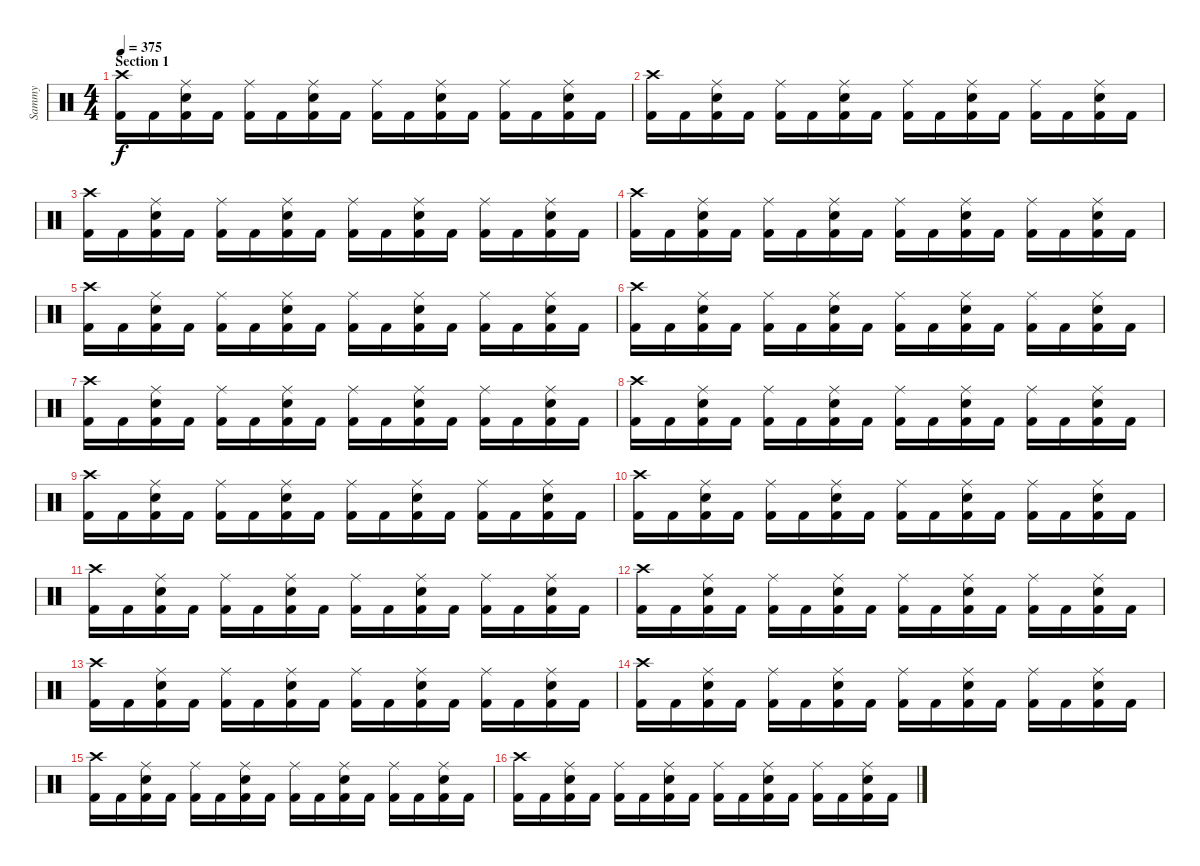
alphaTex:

\track ("Sammy" "Sammy") {instrument percussion}
\staff {score}
\articulation defaults
\ts (4 4)
\section ("" "Section 1")
\tempo 375
\clef neutral
\ks c
("Crash high (hit)" "Kick (hit) 2").16{dy f} "Kick (hit) 2".16 ("Ride (middle)" "Electric Snare (hit)" "Kick (hit) 2").16 "Kick (hit) 2".16 ("Ride (middle)" "Kick (hit) 2").16 "Kick (hit) 2".16 ("Ride (middle)" "Electric Snare (hit)" "Kick (hit) 2").16 "Kick (hit) 2".16 ("Ride (middle)" "Kick (hit) 2").16 "Kick (hit) 2".16 ("Ride (middle)" "Electric Snare (hit)" "Kick (hit) 2").16 "Kick (hit) 2".16 ("Ride (middle)" "Kick (hit) 2").16 "Kick (hit) 2".16 ("Ride (middle)" "Electric Snare (hit)" "Kick (hit) 2").16 "Kick (hit) 2".16 |
("Crash high (hit)" "Kick (hit) 2").16 "Kick (hit) 2".16 ("Ride (middle)" "Electric Snare (hit)" "Kick (hit) 2").16 "Kick (hit) 2".16 ("Ride (middle)" "Kick (hit) 2").16 "Kick (hit) 2".16 ("Ride (middle)" "Electric Snare (hit)" "Kick (hit) 2").16 "Kick (hit) 2".16 ("Ride (middle)" "Kick (hit) 2").16 "Kick (hit) 2".16 ("Ride (middle)" "Electric Snare (hit)" "Kick (hit) 2").16 "Kick (hit) 2".16 ("Ride (middle)" "Kick (hit) 2").16 "Kick (hit) 2".16 ("Ride (middle)" "Electric Snare (hit)" "Kick (hit) 2").16 "Kick (hit) 2".16 |
("Crash high (hit)" "Kick (hit) 2").16 "Kick (hit) 2".16 ("Ride (middle)" "Electric Snare (hit)" "Kick (hit) 2").16 "Kick (hit) 2".16 ("Ride (middle)" "Kick (hit) 2").16 "Kick (hit) 2".16 ("Ride (middle)" "Electric Snare (hit)" "Kick (hit) 2").16 "Kick (hit) 2".16 ("Ride (middle)" "Kick (hit) 2").16 "Kick (hit) 2".16 ("Ride (middle)" "Electric Snare (hit)" "Kick (hit) 2").16 "Kick (hit) 2".16 ("Ride (middle)" "Kick (hit) 2").16 "Kick (hit) 2".16 ("Ride (middle)" "Electric Snare (hit)" "Kick (hit) 2").16 "Kick (hit) 2".16 |
("Crash high (hit)" "Kick (hit) 2").16 "Kick (hit) 2".16 ("Ride (middle)" "Electric Snare (hit)" "Kick (hit) 2").16 "Kick (hit) 2".16 ("Ride (middle)" "Kick (hit) 2").16 "Kick (hit) 2".16 ("Ride (middle)" "Electric Snare (hit)" "Kick (hit) 2").16 "Kick (hit) 2".16 ("Ride (middle)" "Kick (hit) 2").16 "Kick (hit) 2".16 ("Ride (middle)" "Electric Snare (hit)" "Kick (hit) 2").16 "Kick (hit) 2".16 ("Ride (middle)" "Kick (hit) 2").16 "Kick (hit) 2".16 ("Ride (middle)" "Electric Snare (hit)" "Kick (hit) 2").16 "Kick (hit) 2".16 |
("Crash high (hit)" "Kick (hit) 2").16 "Kick (hit) 2".16 ("Ride (middle)" "Electric Snare (hit)" "Kick (hit) 2").16 "Kick (hit) 2".16 ("Ride (middle)" "Kick (hit) 2").16 "Kick (hit) 2".16 ("Ride (middle)" "Electric Snare (hit)" "Kick (hit) 2").16 "Kick (hit) 2".16 ("Ride (middle)" "Kick (hit) 2").16 "Kick (hit) 2".16 ("Ride (middle)" "Electric Snare (hit)" "Kick (hit) 2").16 "Kick (hit) 2".16 ("Ride (middle)" "Kick (hit) 2").16 "Kick (hit) 2".16 ("Ride (middle)" "Electric Snare (hit)" "Kick (hit) 2").16 "Kick (hit) 2".16 |
("Crash high (hit)" "Kick (hit) 2").16 "Kick (hit) 2".16 ("Ride (middle)" "Electric Snare (hit)" "Kick (hit) 2").16 "Kick (hit) 2".16 ("Ride (middle)" "Kick (hit) 2").16 "Kick (hit) 2".16 ("Ride (middle)" "Electric Snare (hit)" "Kick (hit) 2").16 "Kick (hit) 2".16 ("Ride (middle)" "Kick (hit) 2").16 "Kick (hit) 2".16 ("Ride (middle)" "Electric Snare (hit)" "Kick (hit) 2").16 "Kick (hit) 2".16 ("Ride (middle)" "Kick (hit) 2").16 "Kick (hit) 2".16 ("Ride (middle)" "Electric Snare (hit)" "Kick (hit) 2").16 "Kick (hit) 2".16 |
("Crash high (hit)" "Kick (hit) 2").16 "Kick (hit) 2".16 ("Ride (middle)" "Electric Snare (hit)" "Kick (hit) 2").16 "Kick (hit) 2".16 ("Ride (middle)" "Kick (hit) 2").16 "Kick (hit) 2".16 ("Ride (middle)" "Electric Snare (hit)" "Kick (hit) 2").16 "Kick (hit) 2".16 ("Ride (middle)" "Kick (hit) 2").16 "Kick (hit) 2".16 ("Ride (middle)" "Electric Snare (hit)" "Kick (hit) 2").16 "Kick (hit) 2".16 ("Ride (middle)" "Kick (hit) 2").16 "Kick (hit) 2".16 ("Ride (middle)" "Electric Snare (hit)" "Kick (hit) 2").16 "Kick (hit) 2".16 |
("Crash high (hit)" "Kick (hit) 2").16 "Kick (hit) 2".16 ("Ride (middle)" "Electric Snare (hit)" "Kick (hit) 2").16 "Kick (hit) 2".16 ("Ride (middle)" "Kick (hit) 2").16 "Kick (hit) 2".16 ("Ride (middle)" "Electric Snare (hit)" "Kick (hit) 2").16 "Kick (hit) 2".16 ("Ride (middle)" "Kick (hit) 2").16 "Kick (hit) 2".16 ("Ride (middle)" "Electric Snare (hit)" "Kick (hit) 2").16 "Kick (hit) 2".16 ("Ride (middle)" "Kick (hit) 2").16 "Kick (hit) 2".16 ("Ride (middle)" "Electric Snare (hit)" "Kick (hit) 2").16 "Kick (hit) 2".16 |
("Crash high (hit)" "Kick (hit) 2").16 "Kick (hit) 2".16 ("Ride (middle)" "Electric Snare (hit)" "Kick (hit) 2").16 "Kick (hit) 2".16 ("Ride (middle)" "Kick (hit) 2").16 "Kick (hit) 2".16 ("Ride (middle)" "Electric Snare (hit)" "Kick (hit) 2").16 "Kick (hit) 2".16 ("Ride (middle)" "Kick (hit) 2").16 "Kick (hit) 2".16 ("Ride (middle)" "Electric Snare (hit)" "Kick (hit) 2").16 "Kick (hit) 2".16 ("Ride (middle)" "Kick (hit) 2").16 "Kick (hit) 2".16 ("Ride (middle)" "Electric Snare (hit)" "Kick (hit) 2").16 "Kick (hit) 2".16 |
("Crash high (hit)" "Kick (hit) 2").16 "Kick (hit) 2".16 ("Ride (middle)" "Electric Snare (hit)" "Kick (hit) 2").16 "Kick (hit) 2".16 ("Ride (middle)" "Kick (hit) 2").16 "Kick (hit) 2".16 ("Ride (middle)" "Electric Snare (hit)" "Kick (hit) 2").16 "Kick (hit) 2".16 ("Ride (middle)" "Kick (hit) 2").16 "Kick (hit) 2".16 ("Ride (middle)" "Electric Snare (hit)" "Kick (hit) 2").16 "Kick (hit) 2".16 ("Ride (middle)" "Kick (hit) 2").16 "Kick (hit) 2".16 ("Ride (middle)" "Electric Snare (hit)" "Kick (hit) 2").16 "Kick (hit) 2".16 |
("Crash high (hit)" "Kick (hit) 2").16 "Kick (hit) 2".16 ("Ride (middle)" "Electric Snare (hit)" "Kick (hit) 2").16 "Kick (hit) 2".16 ("Ride (middle)" "Kick (hit) 2").16 "Kick (hit) 2".16 ("Ride (middle)" "Electric Snare (hit)" "Kick (hit) 2").16 "Kick (hit) 2".16 ("Ride (middle)" "Kick (hit) 2").16 "Kick (hit) 2".16 ("Ride (middle)" "Electric Snare (hit)" "Kick (hit) 2").16 "Kick (hit) 2".16 ("Ride (middle)" "Kick (hit) 2").16 "Kick (hit) 2".16 ("Ride (middle)" "Electric Snare (hit)" "Kick (hit) 2").16 "Kick (hit) 2".16 |
("Crash high (hit)" "Kick (hit) 2").16 "Kick (hit) 2".16 ("Ride (middle)" "Electric Snare (hit)" "Kick (hit) 2").16 "Kick (hit) 2".16 ("Ride (middle)" "Kick (hit) 2").16 "Kick (hit) 2".16 ("Ride (middle)" "Electric Snare (hit)" "Kick (hit) 2").16 "Kick (hit) 2".16 ("Ride (middle)" "Kick (hit) 2").16 "Kick (hit) 2".16 ("Ride (middle)" "Electric Snare (hit)" "Kick (hit) 2").16 "Kick (hit) 2".16 ("Ride (middle)" "Kick (hit) 2").16 "Kick (hit) 2".16 ("Ride (middle)" "Electric Snare (hit)" "Kick (hit) 2").16 "Kick (hit) 2".16 |
("Crash high (hit)" "Kick (hit) 2").16 "Kick (hit) 2".16 ("Ride (middle)" "Electric Snare (hit)" "Kick (hit) 2").16 "Kick (hit) 2".16 ("Ride (middle)" "Kick (hit) 2").16 "Kick (hit) 2".16 ("Ride (middle)" "Electric Snare (hit)" "Kick (hit) 2").16 "Kick (hit) 2".16 ("Ride (middle)" "Kick (hit) 2").16 "Kick (hit) 2".16 ("Ride (middle)" "Electric Snare (hit)" "Kick (hit) 2").16 "Kick (hit) 2".16 ("Ride (middle)" "Kick (hit) 2").16 "Kick (hit) 2".16 ("Ride (middle)" "Electric Snare (hit)" "Kick (hit) 2").16 "Kick (hit) 2".16 |
("Crash high (hit)" "Kick (hit) 2").16 "Kick (hit) 2".16 ("Ride (middle)" "Electric Snare (hit)" "Kick (hit) 2").16 "Kick (hit) 2".16 ("Ride (middle)" "Kick (hit) 2").16 "Kick (hit) 2".16 ("Ride (middle)" "Electric Snare (hit)" "Kick (hit) 2").16 "Kick (hit) 2".16 ("Ride (middle)" "Kick (hit) 2").16 "Kick (hit) 2".16 ("Ride (middle)" "Electric Snare (hit)" "Kick (hit) 2").16 "Kick (hit) 2".16 ("Ride (middle)" "Kick (hit) 2").16 "Kick (hit) 2".16 ("Ride (middle)" "Electric Snare (hit)" "Kick (hit) 2").16 "Kick (hit) 2".16 |
("Crash high (hit)" "Kick (hit) 2").16 "Kick (hit) 2".16 ("Ride (middle)" "Electric Snare (hit)" "Kick (hit) 2").16 "Kick (hit) 2".16 ("Ride (middle)" "Kick (hit) 2").16 "Kick (hit) 2".16 ("Ride (middle)" "Electric Snare (hit)" "Kick (hit) 2").16 "Kick (hit) 2".16 ("Ride (middle)" "Kick (hit) 2").16 "Kick (hit) 2".16 ("Ride (middle)" "Electric Snare (hit)" "Kick (hit) 2").16 "Kick (hit) 2".16 ("Ride (middle)" "Kick (hit) 2").16 "Kick (hit) 2".16 ("Ride (middle)" "Electric Snare (hit)" "Kick (hit) 2").16 "Kick (hit) 2".16 |
("Crash high (hit)" "Kick (hit) 2").16 "Kick (hit) 2".16 ("Ride (middle)" "Electric Snare (hit)" "Kick (hit) 2").16 "Kick (hit) 2".16 ("Ride (middle)" "Kick (hit) 2").16 "Kick (hit) 2".16 ("Ride (middle)" "Electric Snare (hit)" "Kick (hit) 2").16 "Kick (hit) 2".16 ("Ride (middle)" "Kick (hit) 2").16 "Kick (hit) 2".16 ("Ride (middle)" "Electric Snare (hit)" "Kick (hit) 2").16 "Kick (hit) 2".16 ("Ride (middle)" "Kick (hit) 2").16 "Kick (hit) 2".16 ("Ride (middle)" "Electric Snare (hit)" "Kick (hit) 2").16 "Kick (hit) 2".16
